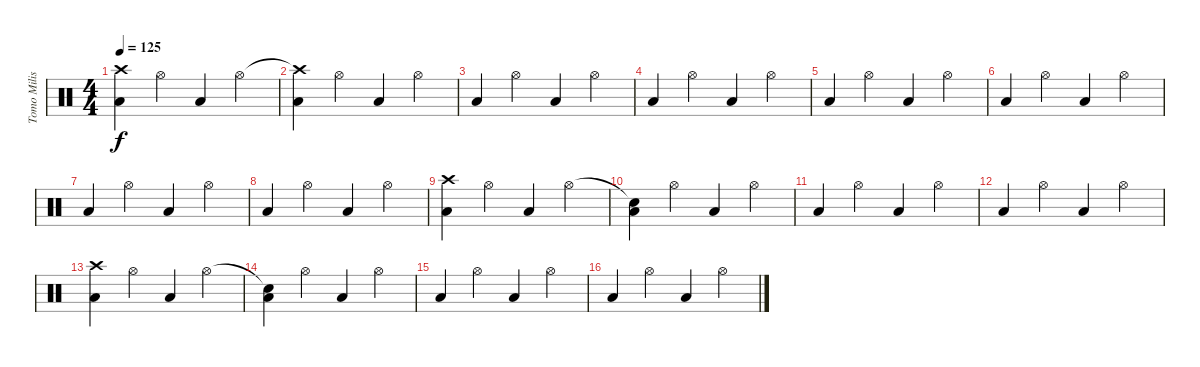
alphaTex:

\track ("Tomo Milisevic" "Tomo Milis") {instrument percussion}
\staff {score}
\articulation defaults
\ts (4 4)
\tempo 125
\clef neutral
\ks c
("Crash high (hit)" "Low Floor Tom (hit)").4{dy f} "Hi-Hat (open)".4 "Low Floor Tom (hit)".4 "Hi-Hat (open)".4 |
("Crash high (hit)"{t} "Low Floor Tom (hit)").4 "Hi-Hat (open)".4 "Low Floor Tom (hit)".4 "Hi-Hat (open)".4 |
"Low Floor Tom (hit)".4 "Hi-Hat (open)".4 "Low Floor Tom (hit)".4 "Hi-Hat (open)".4 |
"Low Floor Tom (hit)".4 "Hi-Hat (open)".4 "Low Floor Tom (hit)".4 "Hi-Hat (open)".4 |
"Low Floor Tom (hit)".4 "Hi-Hat (open)".4 "Low Floor Tom (hit)".4 "Hi-Hat (open)".4 |
"Low Floor Tom (hit)".4 "Hi-Hat (open)".4 "Low Floor Tom (hit)".4 "Hi-Hat (open)".4 |
"Low Floor Tom (hit)".4 "Hi-Hat (open)".4 "Low Floor Tom (hit)".4 "Hi-Hat (open)".4 |
"Low Floor Tom (hit)".4 "Hi-Hat (open)".4 "Low Floor Tom (hit)".4 "Hi-Hat (open)".4 |
("Crash high (hit)" "Low Floor Tom (hit)").4 "Hi-Hat (open)".4 "Low Floor Tom (hit)".4 "Hi-Hat (open)".4 |
("Snare (hit)"{t} "Low Floor Tom (hit)").4 "Hi-Hat (open)".4 "Low Floor Tom (hit)".4 "Hi-Hat (open)".4 |
"Low Floor Tom (hit)".4 "Hi-Hat (open)".4 "Low Floor Tom (hit)".4 "Hi-Hat (open)".4 |
"Low Floor Tom (hit)".4 "Hi-Hat (open)".4 "Low Floor Tom (hit)".4 "Hi-Hat (open)".4 |
("Crash high (hit)" "Low Floor Tom (hit)").4 "Hi-Hat (open)".4 "Low Floor Tom (hit)".4 "Hi-Hat (open)".4 |
("Snare (hit)"{t} "Low Floor Tom (hit)").4 "Hi-Hat (open)".4 "Low Floor Tom (hit)".4 "Hi-Hat (open)".4 |
"Low Floor Tom (hit)".4 "Hi-Hat (open)".4 "Low Floor Tom (hit)".4 "Hi-Hat (open)".4 |
"Low Floor Tom (hit)".4 "Hi-Hat (open)".4 "Low Floor Tom (hit)".4 "Hi-Hat (open)".4
